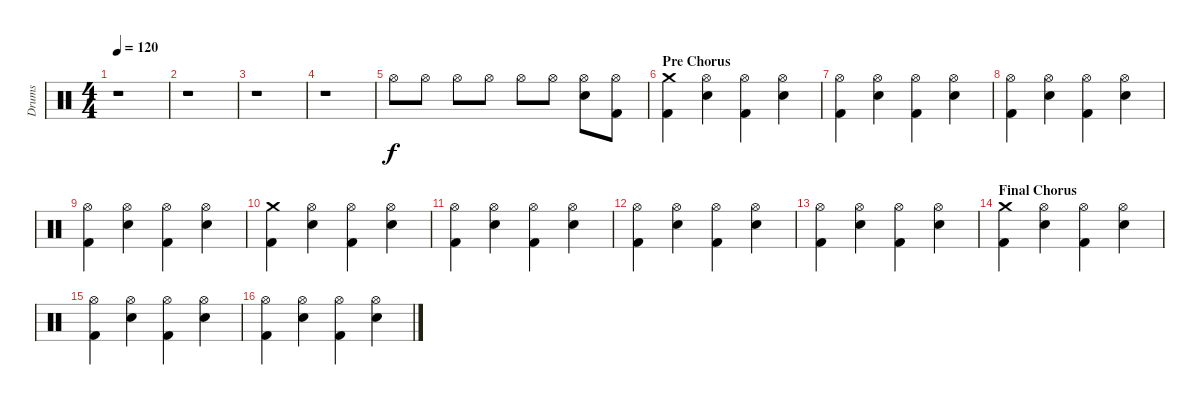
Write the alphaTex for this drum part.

\track ("Drums" "Drums") {instrument percussion}
\staff {score}
\articulation defaults
\ts (4 4)
\tempo 120
\clef neutral
\ks c
r.1{dy f} |
r.1 |
r.1 |
r.1 |
"Hi-Hat (open)".8 "Hi-Hat (open)".8 "Hi-Hat (open)".8 "Hi-Hat (open)".8 "Hi-Hat (open)".8 "Hi-Hat (open)".8 ("Hi-Hat (open)" "Electric Snare (hit)").8 ("Hi-Hat (open)" "Kick (hit) 2").8 |
\section ("" "Pre Chorus")
("Crash medium (hit)" "Kick (hit) 2").4 ("Hi-Hat (open)" "Electric Snare (hit)").4 ("Hi-Hat (open)" "Kick (hit) 2").4 ("Hi-Hat (open)" "Electric Snare (hit)").4 |
("Hi-Hat (open)" "Kick (hit) 2").4 ("Hi-Hat (open)" "Electric Snare (hit)").4 ("Hi-Hat (open)" "Kick (hit) 2").4 ("Hi-Hat (open)" "Electric Snare (hit)").4 |
("Hi-Hat (open)" "Kick (hit) 2").4 ("Hi-Hat (open)" "Electric Snare (hit)").4 ("Hi-Hat (open)" "Kick (hit) 2").4 ("Hi-Hat (open)" "Electric Snare (hit)").4 |
("Hi-Hat (open)" "Kick (hit) 2").4 ("Hi-Hat (open)" "Electric Snare (hit)").4 ("Hi-Hat (open)" "Kick (hit) 2").4 ("Hi-Hat (open)" "Electric Snare (hit)").4 |
("Crash medium (hit)" "Kick (hit) 2").4 ("Hi-Hat (open)" "Electric Snare (hit)").4 ("Hi-Hat (open)" "Kick (hit) 2").4 ("Hi-Hat (open)" "Electric Snare (hit)").4 |
("Hi-Hat (open)" "Kick (hit) 2").4 ("Hi-Hat (open)" "Electric Snare (hit)").4 ("Hi-Hat (open)" "Kick (hit) 2").4 ("Hi-Hat (open)" "Electric Snare (hit)").4 |
("Hi-Hat (open)" "Kick (hit) 2").4 ("Hi-Hat (open)" "Electric Snare (hit)").4 ("Hi-Hat (open)" "Kick (hit) 2").4 ("Hi-Hat (open)" "Electric Snare (hit)").4 |
("Hi-Hat (open)" "Kick (hit) 2").4 ("Hi-Hat (open)" "Electric Snare (hit)").4 ("Hi-Hat (open)" "Kick (hit) 2").4 ("Hi-Hat (open)" "Electric Snare (hit)").4 |
\section ("" "Final Chorus")
("Crash medium (hit)" "Kick (hit) 2").4 ("Hi-Hat (open)" "Electric Snare (hit)").4 ("Hi-Hat (open)" "Kick (hit) 2").4 ("Hi-Hat (open)" "Electric Snare (hit)").4 |
("Hi-Hat (open)" "Kick (hit) 2").4 ("Hi-Hat (open)" "Electric Snare (hit)").4 ("Hi-Hat (open)" "Kick (hit) 2").4 ("Hi-Hat (open)" "Electric Snare (hit)").4 |
("Hi-Hat (open)" "Kick (hit) 2").4 ("Hi-Hat (open)" "Electric Snare (hit)").4 ("Hi-Hat (open)" "Kick (hit) 2").4 ("Hi-Hat (open)" "Electric Snare (hit)").4
